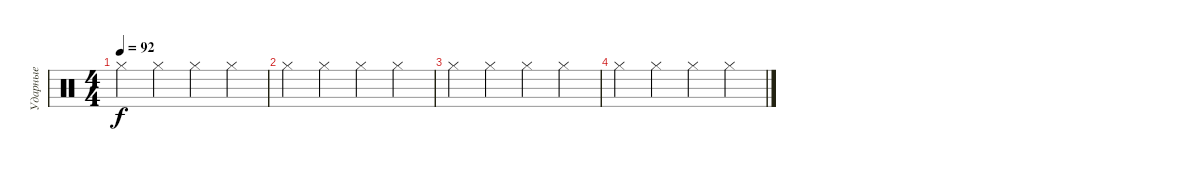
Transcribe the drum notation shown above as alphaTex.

\track ("Ударные" "Ударные") {instrument percussion}
\staff {score}
\articulation defaults
\ts (4 4)
\tempo 92
\clef neutral
\ks c "Hi-Hat (closed)".4{dy f} "Hi-Hat (closed)".4 "Hi-Hat (closed)".4 "Hi-Hat (closed)".4
|
"Hi-Hat (closed)".4 "Hi-Hat (closed)".4 "Hi-Hat (closed)".4 "Hi-Hat (closed)".4 |
"Hi-Hat (closed)".4 "Hi-Hat (closed)".4 "Hi-Hat (closed)".4 "Hi-Hat (closed)".4 |
"Hi-Hat (closed)".4 "Hi-Hat (closed)".4 "Hi-Hat (closed)".4 "Hi-Hat (closed)".4
